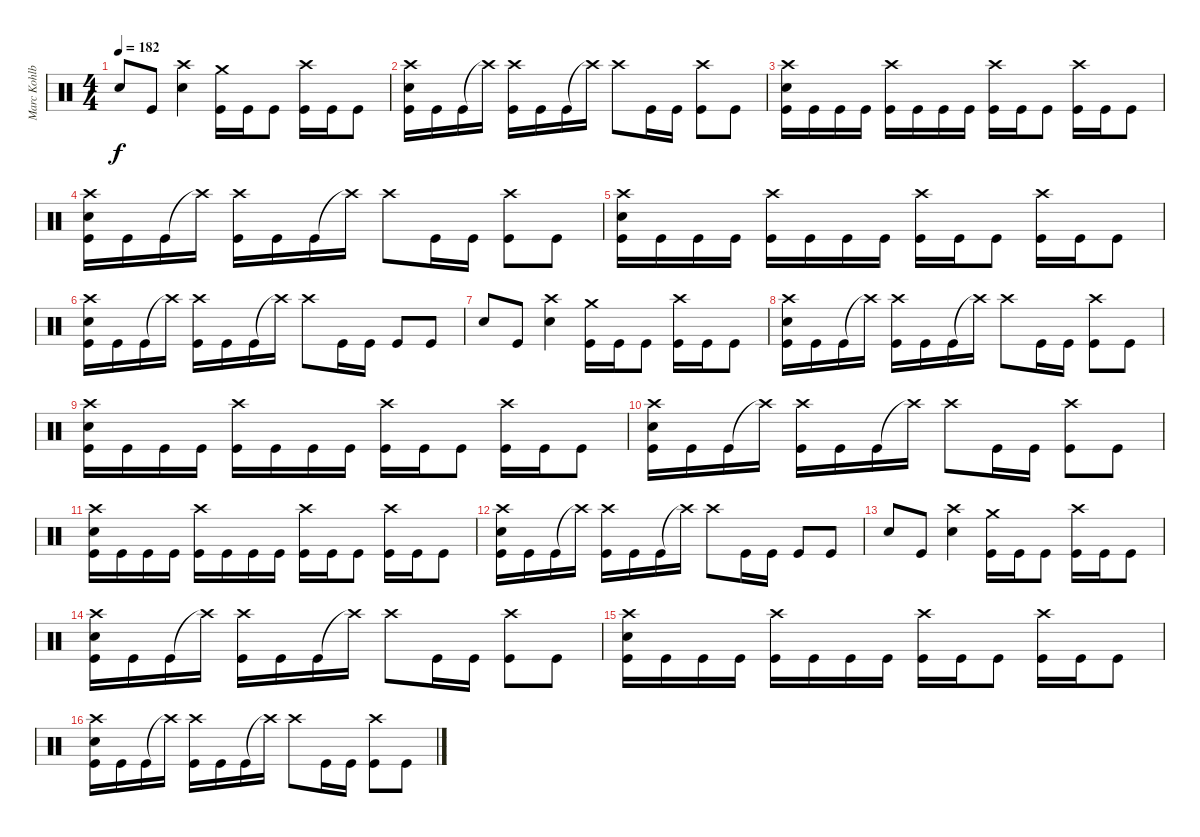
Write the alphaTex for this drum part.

\track ("Marc Kohlbry" "Marc Kohlb") {instrument percussion}
\staff {score}
\articulation defaults
\ts (4 4)
\tempo 182
\clef neutral
\ks c "Electric Snare (hit)".8{dy f} "Kick (hit)".8
("Crash high (hit)" "Electric Snare (hit)").4 ("Crash medium (hit)" "Kick (hit)").16 "Kick (hit)".16 "Kick (hit)".8 ("Crash high (hit)" "Kick (hit)").16 "Kick (hit)".16 "Kick (hit)".8 |
("Crash high (hit)" "Electric Snare (hit)" "Kick (hit)").16 "Kick (hit)".16 "Kick (hit)".16 "Crash high (hit)"{t}.16 ("Crash high (hit)" "Kick (hit)").16 "Kick (hit)".16 "Kick (hit)".16 "Crash high (hit)"{t}.16 "Crash high (hit)".8 "Kick (hit)".16 "Kick (hit)".16 ("Crash high (hit)" "Kick (hit)").8 "Kick (hit)".8 |
("Crash high (hit)" "Electric Snare (hit)" "Kick (hit)").16 "Kick (hit)".16 "Kick (hit)".16 "Kick (hit)".16 ("Crash high (hit)" "Kick (hit)").16 "Kick (hit)".16 "Kick (hit)".16 "Kick (hit)".16 ("Crash high (hit)" "Kick (hit)").16 "Kick (hit)".16 "Kick (hit)".8 ("Crash high (hit)" "Kick (hit)").16 "Kick (hit)".16 "Kick (hit)".8 |
("Crash high (hit)" "Electric Snare (hit)" "Kick (hit)").16 "Kick (hit)".16 "Kick (hit)".16 "Crash high (hit)"{t}.16 ("Crash high (hit)" "Kick (hit)").16 "Kick (hit)".16 "Kick (hit)".16 "Crash high (hit)"{t}.16 "Crash high (hit)".8 "Kick (hit)".16 "Kick (hit)".16 ("Crash high (hit)" "Kick (hit)").8 "Kick (hit)".8 |
("Crash high (hit)" "Electric Snare (hit)" "Kick (hit)").16 "Kick (hit)".16 "Kick (hit)".16 "Kick (hit)".16 ("Crash high (hit)" "Kick (hit)").16 "Kick (hit)".16 "Kick (hit)".16 "Kick (hit)".16 ("Crash high (hit)" "Kick (hit)").16 "Kick (hit)".16 "Kick (hit)".8 ("Crash high (hit)" "Kick (hit)").16 "Kick (hit)".16 "Kick (hit)".8 |
("Crash high (hit)" "Electric Snare (hit)" "Kick (hit)").16 "Kick (hit)".16 "Kick (hit)".16 "Crash high (hit)"{t}.16 ("Crash high (hit)" "Kick (hit)").16 "Kick (hit)".16 "Kick (hit)".16 "Crash high (hit)"{t}.16 "Crash high (hit)".8 "Kick (hit)".16 "Kick (hit)".16 "Kick (hit)".8 "Kick (hit)".8 |
"Electric Snare (hit)".8 "Kick (hit)".8 ("Crash high (hit)" "Electric Snare (hit)").4 ("Crash medium (hit)" "Kick (hit)").16 "Kick (hit)".16 "Kick (hit)".8 ("Crash high (hit)" "Kick (hit)").16 "Kick (hit)".16 "Kick (hit)".8 |
("Crash high (hit)" "Electric Snare (hit)" "Kick (hit)").16 "Kick (hit)".16 "Kick (hit)".16 "Crash high (hit)"{t}.16 ("Crash high (hit)" "Kick (hit)").16 "Kick (hit)".16 "Kick (hit)".16 "Crash high (hit)"{t}.16 "Crash high (hit)".8 "Kick (hit)".16 "Kick (hit)".16 ("Crash high (hit)" "Kick (hit)").8 "Kick (hit)".8 |
("Crash high (hit)" "Electric Snare (hit)" "Kick (hit)").16 "Kick (hit)".16 "Kick (hit)".16 "Kick (hit)".16 ("Crash high (hit)" "Kick (hit)").16 "Kick (hit)".16 "Kick (hit)".16 "Kick (hit)".16 ("Crash high (hit)" "Kick (hit)").16 "Kick (hit)".16 "Kick (hit)".8 ("Crash high (hit)" "Kick (hit)").16 "Kick (hit)".16 "Kick (hit)".8 |
("Crash high (hit)" "Electric Snare (hit)" "Kick (hit)").16 "Kick (hit)".16 "Kick (hit)".16 "Crash high (hit)"{t}.16 ("Crash high (hit)" "Kick (hit)").16 "Kick (hit)".16 "Kick (hit)".16 "Crash high (hit)"{t}.16 "Crash high (hit)".8 "Kick (hit)".16 "Kick (hit)".16 ("Crash high (hit)" "Kick (hit)").8 "Kick (hit)".8 |
("Crash high (hit)" "Electric Snare (hit)" "Kick (hit)").16 "Kick (hit)".16 "Kick (hit)".16 "Kick (hit)".16 ("Crash high (hit)" "Kick (hit)").16 "Kick (hit)".16 "Kick (hit)".16 "Kick (hit)".16 ("Crash high (hit)" "Kick (hit)").16 "Kick (hit)".16 "Kick (hit)".8 ("Crash high (hit)" "Kick (hit)").16 "Kick (hit)".16 "Kick (hit)".8 |
("Crash high (hit)" "Electric Snare (hit)" "Kick (hit)").16 "Kick (hit)".16 "Kick (hit)".16 "Crash high (hit)"{t}.16 ("Crash high (hit)" "Kick (hit)").16 "Kick (hit)".16 "Kick (hit)".16 "Crash high (hit)"{t}.16 "Crash high (hit)".8 "Kick (hit)".16 "Kick (hit)".16 "Kick (hit)".8 "Kick (hit)".8 |
"Electric Snare (hit)".8 "Kick (hit)".8 ("Crash high (hit)" "Electric Snare (hit)").4 ("Crash medium (hit)" "Kick (hit)").16 "Kick (hit)".16 "Kick (hit)".8 ("Crash high (hit)" "Kick (hit)").16 "Kick (hit)".16 "Kick (hit)".8 |
("Crash high (hit)" "Electric Snare (hit)" "Kick (hit)").16 "Kick (hit)".16 "Kick (hit)".16 "Crash high (hit)"{t}.16 ("Crash high (hit)" "Kick (hit)").16 "Kick (hit)".16 "Kick (hit)".16 "Crash high (hit)"{t}.16 "Crash high (hit)".8 "Kick (hit)".16 "Kick (hit)".16 ("Crash high (hit)" "Kick (hit)").8 "Kick (hit)".8 |
("Crash high (hit)" "Electric Snare (hit)" "Kick (hit)").16 "Kick (hit)".16 "Kick (hit)".16 "Kick (hit)".16 ("Crash high (hit)" "Kick (hit)").16 "Kick (hit)".16 "Kick (hit)".16 "Kick (hit)".16 ("Crash high (hit)" "Kick (hit)").16 "Kick (hit)".16 "Kick (hit)".8 ("Crash high (hit)" "Kick (hit)").16 "Kick (hit)".16 "Kick (hit)".8 |
("Crash high (hit)" "Electric Snare (hit)" "Kick (hit)").16 "Kick (hit)".16 "Kick (hit)".16 "Crash high (hit)"{t}.16 ("Crash high (hit)" "Kick (hit)").16 "Kick (hit)".16 "Kick (hit)".16 "Crash high (hit)"{t}.16 "Crash high (hit)".8 "Kick (hit)".16 "Kick (hit)".16 ("Crash high (hit)" "Kick (hit)").8 "Kick (hit)".8
